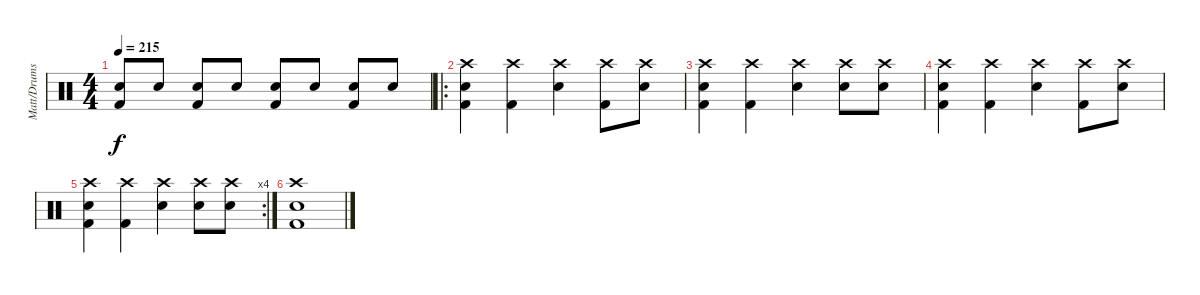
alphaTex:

\track ("Matt/Drums" "Matt/Drums") {instrument percussion}
\staff {score}
\articulation defaults
\ts (4 4)
\tempo 215
\clef neutral
\ks c
("Electric Snare (hit)" "Kick (hit) 2").8{dy f} "Electric Snare (hit)".8 ("Electric Snare (hit)" "Kick (hit) 2").8 "Electric Snare (hit)".8 ("Electric Snare (hit)" "Kick (hit) 2").8 "Electric Snare (hit)".8 ("Electric Snare (hit)" "Kick (hit) 2").8 "Electric Snare (hit)".8 |
\ro
("Crash high (hit)" "Electric Snare (hit)" "Kick (hit) 2").4 ("Crash high (hit)" "Kick (hit) 2").4 ("Crash high (hit)" "Electric Snare (hit)").4 ("Crash high (hit)" "Kick (hit) 2").8 ("Crash high (hit)" "Electric Snare (hit)").8 |
("Crash high (hit)" "Electric Snare (hit)" "Kick (hit) 2").4 ("Crash high (hit)" "Kick (hit) 2").4 ("Crash high (hit)" "Electric Snare (hit)").4 ("Crash high (hit)" "Electric Snare (hit)").8 ("Crash high (hit)" "Electric Snare (hit)").8 |
("Crash high (hit)" "Electric Snare (hit)" "Kick (hit) 2").4 ("Crash high (hit)" "Kick (hit) 2").4 ("Crash high (hit)" "Electric Snare (hit)").4 ("Crash high (hit)" "Kick (hit) 2").8 ("Crash high (hit)" "Electric Snare (hit)").8 |
\rc 4
("Crash high (hit)" "Electric Snare (hit)" "Kick (hit) 2").4 ("Crash high (hit)" "Kick (hit) 2").4 ("Crash high (hit)" "Electric Snare (hit)").4 ("Crash high (hit)" "Electric Snare (hit)").8 ("Crash high (hit)" "Electric Snare (hit)").8 |
("Crash high (hit)" "Electric Snare (hit)" "Kick (hit) 2").1
